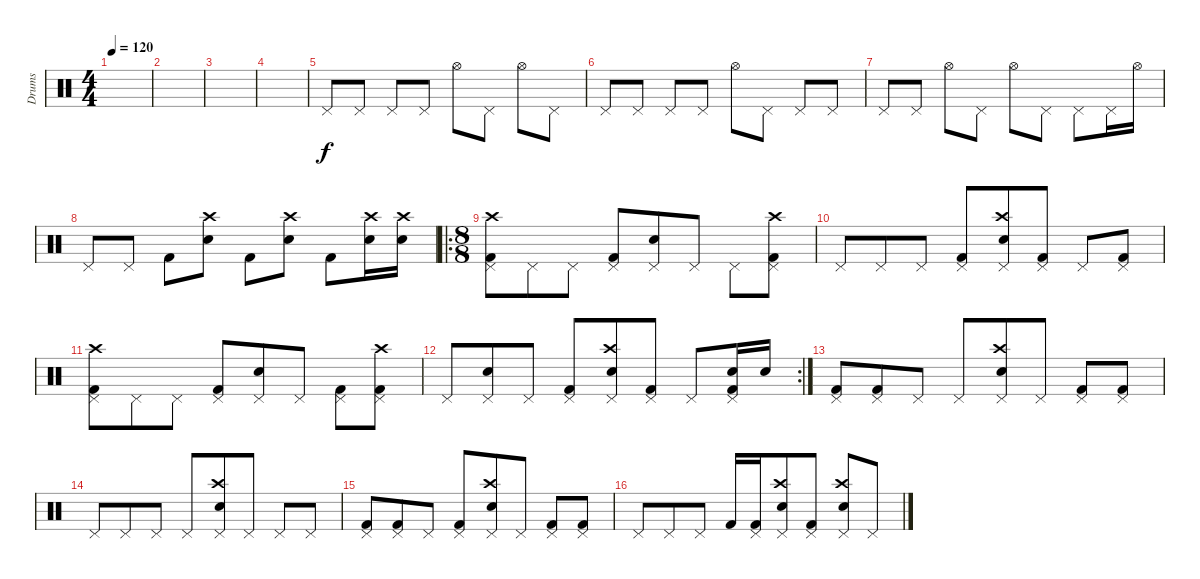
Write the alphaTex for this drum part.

\track ("Drums" "Drums") {instrument percussion}
\staff {score}
\articulation defaults
\ts (4 4)
\tempo 120
\clef neutral
\ks c
|
|
|
|
"Pedal Hi-Hat (hit)".8 "Pedal Hi-Hat (hit)".8 "Pedal Hi-Hat (hit)".8 "Pedal Hi-Hat (hit)".8 "Hi-Hat (open)".8 "Pedal Hi-Hat (hit)".8 "Hi-Hat (open)".8 "Pedal Hi-Hat (hit)".8 |
"Pedal Hi-Hat (hit)".8 "Pedal Hi-Hat (hit)".8 "Pedal Hi-Hat (hit)".8 "Pedal Hi-Hat (hit)".8 "Hi-Hat (open)".8 "Pedal Hi-Hat (hit)".8 "Pedal Hi-Hat (hit)".8 "Pedal Hi-Hat (hit)".8 |
"Pedal Hi-Hat (hit)".8 "Pedal Hi-Hat (hit)".8 "Hi-Hat (open)".8 "Pedal Hi-Hat (hit)".8 "Hi-Hat (open)".8 "Pedal Hi-Hat (hit)".8 "Pedal Hi-Hat (hit)".8 "Pedal Hi-Hat (hit)".16 "Hi-Hat (open)".16 |
"Pedal Hi-Hat (hit)".8 "Pedal Hi-Hat (hit)".8 "Kick (hit) 2".8 ("Crash high (hit)" "Snare (hit) 2").8 "Kick (hit) 2".8 ("Crash high (hit)" "Snare (hit) 2").8 "Kick (hit) 2".8 ("Crash high (hit)" "Snare (hit) 2").16 ("Crash high (hit)" "Snare (hit) 2").16 |
\ro
\ts (8 8)
("Crash high (hit)" "Kick (hit) 2" "Pedal Hi-Hat (hit)").8 "Pedal Hi-Hat (hit)".8 "Pedal Hi-Hat (hit)".8 ("Kick (hit) 2" "Pedal Hi-Hat (hit)").8 ("Snare (hit) 2" "Pedal Hi-Hat (hit)").8 "Pedal Hi-Hat (hit)".8 "Pedal Hi-Hat (hit)".8 ("Crash high (hit)" "Kick (hit) 2" "Pedal Hi-Hat (hit)").8 |
"Pedal Hi-Hat (hit)".8 "Pedal Hi-Hat (hit)".8 "Pedal Hi-Hat (hit)".8 ("Kick (hit) 2" "Pedal Hi-Hat (hit)").8 ("Crash high (hit)" "Snare (hit) 2" "Pedal Hi-Hat (hit)").8 ("Kick (hit) 2" "Pedal Hi-Hat (hit)").8 "Pedal Hi-Hat (hit)".8 ("Kick (hit) 2" "Pedal Hi-Hat (hit)").8 |
("Crash high (hit)" "Kick (hit) 2" "Pedal Hi-Hat (hit)").8 "Pedal Hi-Hat (hit)".8 "Pedal Hi-Hat (hit)".8 ("Kick (hit) 2" "Pedal Hi-Hat (hit)").8 ("Snare (hit) 2" "Pedal Hi-Hat (hit)").8 "Pedal Hi-Hat (hit)".8 ("Kick (hit) 2" "Pedal Hi-Hat (hit)").8 ("Crash high (hit)" "Kick (hit) 2" "Pedal Hi-Hat (hit)").8 |
\rc 2 "Pedal Hi-Hat (hit)".8
("Snare (hit) 2" "Pedal Hi-Hat (hit)").8 "Pedal Hi-Hat (hit)".8 ("Kick (hit) 2" "Pedal Hi-Hat (hit)").8 ("Crash high (hit)" "Snare (hit) 2" "Pedal Hi-Hat (hit)").8 ("Kick (hit) 2" "Pedal Hi-Hat (hit)").8 "Pedal Hi-Hat (hit)".8 ("Snare (hit) 2" "Kick (hit) 2" "Pedal Hi-Hat (hit)").16 "Snare (hit) 2".16 |
("Kick (hit) 2" "Pedal Hi-Hat (hit)").8 ("Kick (hit) 2" "Pedal Hi-Hat (hit)").8 "Pedal Hi-Hat (hit)".8 "Pedal Hi-Hat (hit)".8 ("Crash high (hit)" "Snare (hit) 2" "Pedal Hi-Hat (hit)").8 "Pedal Hi-Hat (hit)".8 ("Kick (hit) 2" "Pedal Hi-Hat (hit)").8 ("Kick (hit) 2" "Pedal Hi-Hat (hit)").8 |
"Pedal Hi-Hat (hit)".8 "Pedal Hi-Hat (hit)".8 "Pedal Hi-Hat (hit)".8 "Pedal Hi-Hat (hit)".8 ("Crash high (hit)" "Snare (hit) 2" "Pedal Hi-Hat (hit)").8 "Pedal Hi-Hat (hit)".8 "Pedal Hi-Hat (hit)".8 "Pedal Hi-Hat (hit)".8 |
("Kick (hit) 2" "Pedal Hi-Hat (hit)").8 ("Kick (hit) 2" "Pedal Hi-Hat (hit)").8 "Pedal Hi-Hat (hit)".8 ("Kick (hit) 2" "Pedal Hi-Hat (hit)").8 ("Crash high (hit)" "Snare (hit) 2" "Pedal Hi-Hat (hit)").8 "Pedal Hi-Hat (hit)".8 ("Kick (hit) 2" "Pedal Hi-Hat (hit)").8 ("Kick (hit) 2" "Pedal Hi-Hat (hit)").8 |
"Pedal Hi-Hat (hit)".8 "Pedal Hi-Hat (hit)".8 "Pedal Hi-Hat (hit)".8 "Kick (hit) 2".16 ("Kick (hit) 2" "Pedal Hi-Hat (hit)").16 ("Crash high (hit)" "Snare (hit) 2" "Pedal Hi-Hat (hit)").8 ("Kick (hit) 2" "Pedal Hi-Hat (hit)").8 ("Crash high (hit)" "Snare (hit) 2" "Pedal Hi-Hat (hit)").8 "Pedal Hi-Hat (hit)".8
